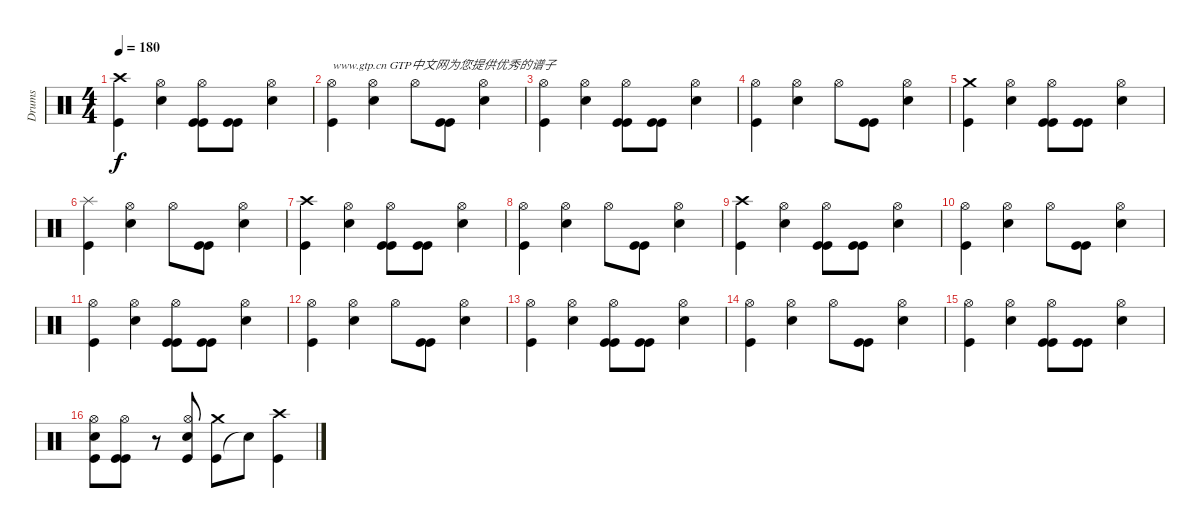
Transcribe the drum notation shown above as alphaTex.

\track ("Drums" "Drums") {instrument percussion}
\staff {score}
\articulation defaults
\ts (4 4)
\tempo 180
\clef neutral
\ks c
("Crash high (hit)" "Kick (hit)").4{dy f} ("Hi-Hat (open)" "Snare (hit) 2").4 ("Hi-Hat (open)" "Kick (hit)" "Kick (hit)").8 ("Kick (hit)" "Kick (hit)").8 ("Hi-Hat (open)" "Snare (hit) 2").4 |
("Hi-Hat (open)" "Kick (hit)").4{txt "www.gtp.cn GTP中文网为您提供优秀的谱子"} ("Hi-Hat (open)" "Snare (hit) 2").4 "Hi-Hat (open)".8 ("Kick (hit)" "Kick (hit)").8 ("Hi-Hat (open)" "Snare (hit) 2").4 |
("Hi-Hat (open)" "Kick (hit)").4 ("Hi-Hat (open)" "Snare (hit) 2").4 ("Hi-Hat (open)" "Kick (hit)" "Kick (hit)").8 ("Kick (hit)" "Kick (hit)").8 ("Hi-Hat (open)" "Snare (hit) 2").4 |
("Hi-Hat (open)" "Kick (hit)").4 ("Hi-Hat (open)" "Snare (hit) 2").4 "Hi-Hat (open)".8 ("Kick (hit)" "Kick (hit)").8 ("Hi-Hat (open)" "Snare (hit) 2").4 |
("Crash medium (hit)" "Kick (hit)").4 ("Hi-Hat (open)" "Snare (hit) 2").4 ("Hi-Hat (open)" "Kick (hit)" "Kick (hit)").8 ("Kick (hit)" "Kick (hit)").8 ("Hi-Hat (open)" "Snare (hit) 2").4 |
("Splash (hit)" "Kick (hit)").4 ("Hi-Hat (open)" "Snare (hit) 2").4 "Hi-Hat (open)".8 ("Kick (hit)" "Kick (hit)").8 ("Hi-Hat (open)" "Snare (hit) 2").4 |
("Crash high (hit)" "Kick (hit)").4 ("Hi-Hat (open)" "Snare (hit) 2").4 ("Hi-Hat (open)" "Kick (hit)" "Kick (hit)").8 ("Kick (hit)" "Kick (hit)").8 ("Hi-Hat (open)" "Snare (hit) 2").4 |
("Hi-Hat (open)" "Kick (hit)").4 ("Hi-Hat (open)" "Snare (hit) 2").4 "Hi-Hat (open)".8 ("Kick (hit)" "Kick (hit)").8 ("Hi-Hat (open)" "Snare (hit) 2").4 |
("Crash high (hit)" "Kick (hit)").4 ("Hi-Hat (open)" "Snare (hit) 2").4 ("Hi-Hat (open)" "Kick (hit)" "Kick (hit)").8 ("Kick (hit)" "Kick (hit)").8 ("Hi-Hat (open)" "Snare (hit) 2").4 |
("Hi-Hat (open)" "Kick (hit)").4 ("Hi-Hat (open)" "Snare (hit) 2").4 "Hi-Hat (open)".8 ("Kick (hit)" "Kick (hit)").8 ("Hi-Hat (open)" "Snare (hit) 2").4 |
("Hi-Hat (open)" "Kick (hit)").4 ("Hi-Hat (open)" "Snare (hit) 2").4 ("Hi-Hat (open)" "Kick (hit)" "Kick (hit)").8 ("Kick (hit)" "Kick (hit)").8 ("Hi-Hat (open)" "Snare (hit) 2").4 |
("Hi-Hat (open)" "Kick (hit)").4 ("Hi-Hat (open)" "Snare (hit) 2").4 "Hi-Hat (open)".8 ("Kick (hit)" "Kick (hit)").8 ("Hi-Hat (open)" "Snare (hit) 2").4 |
("Hi-Hat (open)" "Kick (hit)").4 ("Hi-Hat (open)" "Snare (hit) 2").4 ("Hi-Hat (open)" "Kick (hit)" "Kick (hit)").8 ("Kick (hit)" "Kick (hit)").8 ("Hi-Hat (open)" "Snare (hit) 2").4 |
("Hi-Hat (open)" "Kick (hit)").4 ("Hi-Hat (open)" "Snare (hit) 2").4 "Hi-Hat (open)".8 ("Kick (hit)" "Kick (hit)").8 ("Hi-Hat (open)" "Snare (hit) 2").4 |
("Hi-Hat (open)" "Kick (hit)").4 ("Hi-Hat (open)" "Snare (hit) 2").4 ("Hi-Hat (open)" "Kick (hit)" "Kick (hit)").8 ("Kick (hit)" "Kick (hit)").8 ("Hi-Hat (open)" "Snare (hit) 2").4 |
("Hi-Hat (open)" "Snare (hit) 2" "Kick (hit)").8 ("Hi-Hat (open)" "Kick (hit)" "Kick (hit)").8 r.8 ("Hi-Hat (open)" "Snare (hit) 2" "Kick (hit)").8 ("Kick (hit)" "Crash medium (hit)").8 "Snare (hit)"{t}.8 ("Kick (hit)" "Crash high (hit)").4
